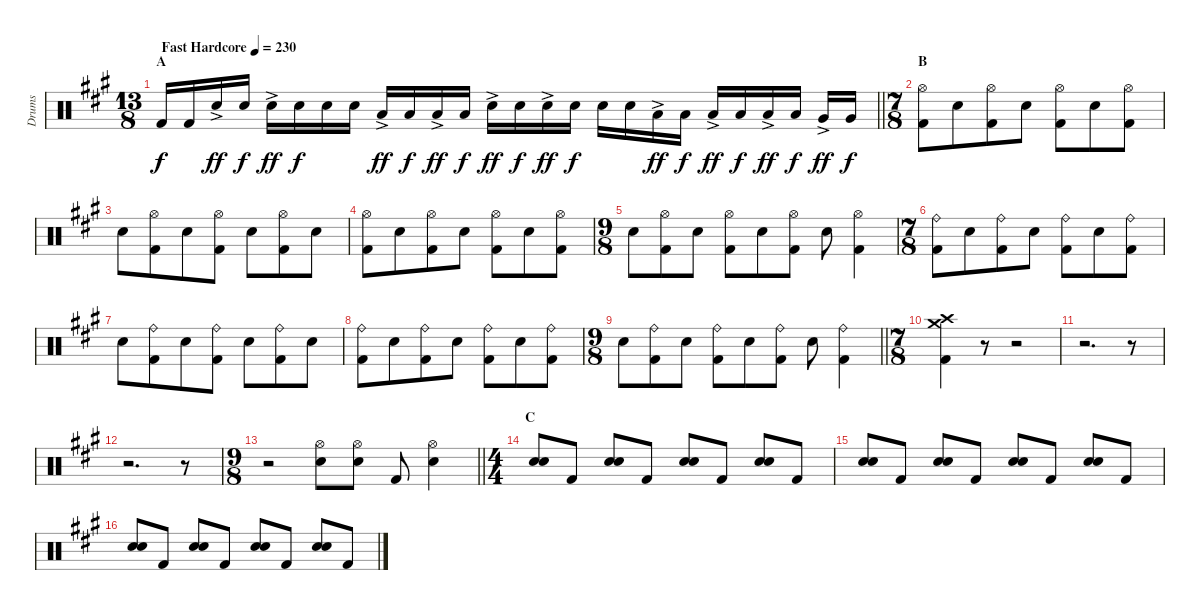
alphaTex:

\track ("Drums" "Drums") {instrument percussion}
\staff {score}
\articulation defaults
\ts (13 8)
\section ("" "A")
\tempo (230 "Fast Hardcore")
\clef neutral
\barLineRight lightlight
\ks f#minor "Kick (hit) 2".16{dy f} "Kick (hit) 2".16 "Electric Snare (hit)"{ac}.16{dy ff} "Electric Snare (hit)".16{dy f} "Electric Snare (hit)"{ac}.16{dy ff} "Electric Snare (hit)".16{dy f} "Electric Snare (hit)".16 "Electric Snare (hit)".16 "Low Tom (hit)"{ac}.16{dy ff} "Low Tom (hit)".16{dy f} "Low Tom (hit)"{ac}.16{dy ff} "Low Tom (hit)".16{dy f} "Electric Snare (hit)"{ac}.16{dy ff} "Electric Snare (hit)".16{dy f} "Electric Snare (hit)"{ac}.16{dy ff} "Electric Snare (hit)".16{dy f} "Electric Snare (hit)".16 "Electric Snare (hit)".16 "Low Tom (hit)"{ac}.16{dy ff} "Low Tom (hit)".16{dy f} "Low Tom (hit)"{ac}.16{dy ff} "Low Tom (hit)".16{dy f} "Low Tom (hit)"{ac}.16{dy ff} "Low Tom (hit)".16{dy f} "Very Low Tom (hit)"{ac}.16{dy ff} "Very Low Tom (hit)".16{dy f}
|
\ts (7 8)
\section ("" "B")
("Hi-Hat (open)" "Kick (hit) 2").8 "Electric Snare (hit)".8 ("Hi-Hat (open)" "Kick (hit) 2").8 "Electric Snare (hit)".8 ("Hi-Hat (open)" "Kick (hit) 2").8 "Electric Snare (hit)".8 ("Hi-Hat (open)" "Kick (hit) 2").8 |
"Electric Snare (hit)".8 ("Hi-Hat (open)" "Kick (hit) 2").8 "Electric Snare (hit)".8 ("Hi-Hat (open)" "Kick (hit) 2").8 "Electric Snare (hit)".8 ("Hi-Hat (open)" "Kick (hit) 2").8 "Electric Snare (hit)".8 |
("Hi-Hat (open)" "Kick (hit) 2").8 "Electric Snare (hit)".8 ("Hi-Hat (open)" "Kick (hit) 2").8 "Electric Snare (hit)".8 ("Hi-Hat (open)" "Kick (hit) 2").8 "Electric Snare (hit)".8 ("Hi-Hat (open)" "Kick (hit) 2").8 |
\ts (9 8)
"Electric Snare (hit)".8 ("Hi-Hat (open)" "Kick (hit) 2").8 "Electric Snare (hit)".8 ("Hi-Hat (open)" "Kick (hit) 2").8 "Electric Snare (hit)".8 ("Hi-Hat (open)" "Kick (hit) 2").8 "Electric Snare (hit)".8 ("Hi-Hat (open)" "Kick (hit) 2").4 |
\ts (7 8)
("Ride (bell)" "Kick (hit) 2").8 "Electric Snare (hit)".8 ("Ride (bell)" "Kick (hit) 2").8 "Electric Snare (hit)".8 ("Ride (bell)" "Kick (hit) 2").8 "Electric Snare (hit)".8 ("Ride (bell)" "Kick (hit) 2").8 |
"Electric Snare (hit)".8 ("Ride (bell)" "Kick (hit) 2").8 "Electric Snare (hit)".8 ("Ride (bell)" "Kick (hit) 2").8 "Electric Snare (hit)".8 ("Ride (bell)" "Kick (hit) 2").8 "Electric Snare (hit)".8 |
("Ride (bell)" "Kick (hit) 2").8 "Electric Snare (hit)".8 ("Ride (bell)" "Kick (hit) 2").8 "Electric Snare (hit)".8 ("Ride (bell)" "Kick (hit) 2").8 "Electric Snare (hit)".8 ("Ride (bell)" "Kick (hit) 2").8 |
\ts (9 8)
\barLineRight lightlight "Electric Snare (hit)".8
("Ride (bell)" "Kick (hit) 2").8 "Electric Snare (hit)".8 ("Ride (bell)" "Kick (hit) 2").8 "Electric Snare (hit)".8 ("Ride (bell)" "Kick (hit) 2").8 "Electric Snare (hit)".8 ("Ride (bell)" "Kick (hit) 2").4 |
\ts (7 8)
\section ("" "")
("Crash medium (hit)" "Crash high (hit)" "Kick (hit) 2").4 r.8{volume 0} r.2 |
r.2{d} r.8 |
r.2{d} r.8 |
\ts (9 8)
\barLineRight lightlight
r.2 ("Hi-Hat (open)" "Electric Snare (hit)").8{volume 14} ("Hi-Hat (open)" "Electric Snare (hit)").8 "Kick (hit) 2".8 ("Hi-Hat (open)" "Electric Snare (hit)").4 |
\ts (4 4)
\section ("" "C")
("Electric Snare (hit)" "Electric Snare (hit)").8{bu 120} "Kick (hit) 2".8 ("Electric Snare (hit)" "Electric Snare (hit)").8{bu 120} "Kick (hit) 2".8 ("Electric Snare (hit)" "Electric Snare (hit)").8{bu 120} "Kick (hit) 2".8 ("Electric Snare (hit)" "Electric Snare (hit)").8{bu 120} "Kick (hit) 2".8 |
("Electric Snare (hit)" "Electric Snare (hit)").8{bu 120} "Kick (hit) 2".8 ("Electric Snare (hit)" "Electric Snare (hit)").8{bu 120} "Kick (hit) 2".8 ("Electric Snare (hit)" "Electric Snare (hit)").8{bu 120} "Kick (hit) 2".8 ("Electric Snare (hit)" "Electric Snare (hit)").8{bu 120} "Kick (hit) 2".8 |
("Electric Snare (hit)" "Electric Snare (hit)").8{bu 120} "Kick (hit) 2".8 ("Electric Snare (hit)" "Electric Snare (hit)").8{bu 120} "Kick (hit) 2".8 ("Electric Snare (hit)" "Electric Snare (hit)").8{bu 120} "Kick (hit) 2".8 ("Electric Snare (hit)" "Electric Snare (hit)").8{bu 120} "Kick (hit) 2".8
